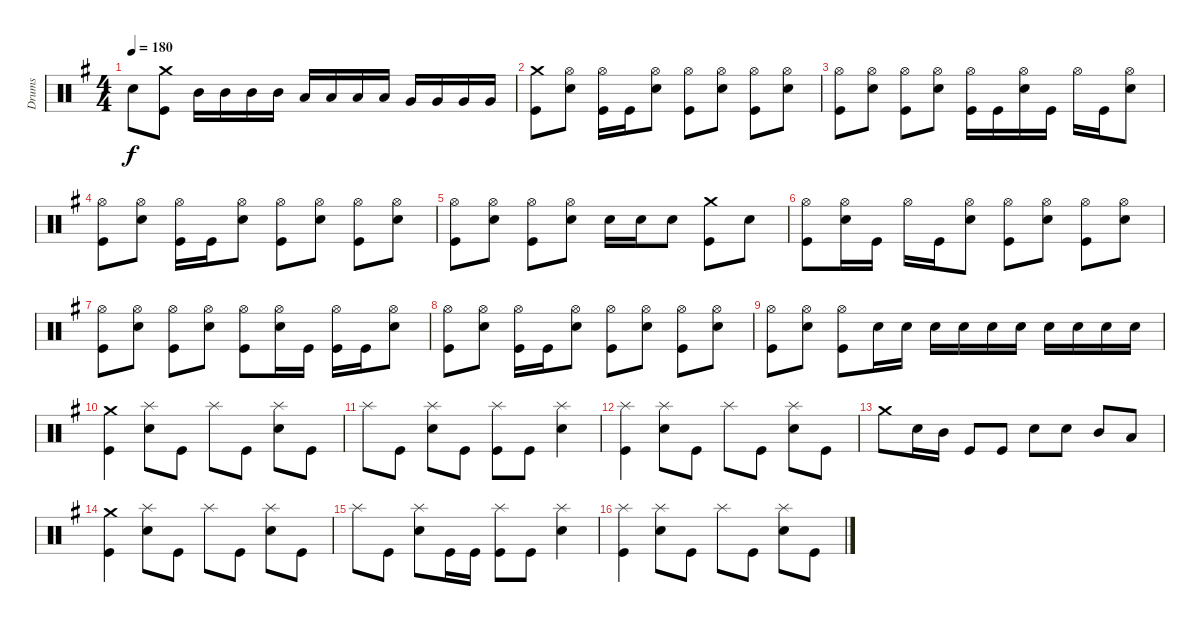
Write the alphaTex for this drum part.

\track ("Drums" "Drums") {instrument percussion}
\staff {score}
\articulation defaults
\ts (4 4)
\tempo 180
\clef neutral
\ks g "Electric Snare (hit)".8{dy f}
("Kick (hit)" "Crash medium (hit)").8 "Mid Tom (hit)".16 "Mid Tom (hit)".16 "Mid Tom (hit)".16 "Mid Tom (hit)".16 "Low Tom (hit)".16 "Low Tom (hit)".16 "Low Tom (hit)".16 "Low Tom (hit)".16 "Very Low Tom (hit)".16 "Very Low Tom (hit)".16 "Very Low Tom (hit)".16 "Very Low Tom (hit)".16 |
("Kick (hit)" "Crash medium (hit)").8 ("Electric Snare (hit)" "Hi-Hat (open)").8 ("Kick (hit)" "Hi-Hat (open)").16 "Kick (hit)".16 ("Electric Snare (hit)" "Hi-Hat (open)").8 ("Kick (hit)" "Hi-Hat (open)").8 ("Electric Snare (hit)" "Hi-Hat (open)").8 ("Kick (hit)" "Hi-Hat (open)").8 ("Electric Snare (hit)" "Hi-Hat (open)").8 |
("Kick (hit)" "Hi-Hat (open)").8 ("Electric Snare (hit)" "Hi-Hat (open)").8 ("Kick (hit)" "Hi-Hat (open)").8 ("Electric Snare (hit)" "Hi-Hat (open)").8 ("Kick (hit)" "Hi-Hat (open)").16 "Kick (hit)".16 ("Electric Snare (hit)" "Hi-Hat (open)").16 "Kick (hit)".16 "Hi-Hat (open)".16 "Kick (hit)".16 ("Electric Snare (hit)" "Hi-Hat (open)").8 |
("Kick (hit)" "Hi-Hat (open)").8 ("Electric Snare (hit)" "Hi-Hat (open)").8 ("Kick (hit)" "Hi-Hat (open)").16 "Kick (hit)".16 ("Electric Snare (hit)" "Hi-Hat (open)").8 ("Kick (hit)" "Hi-Hat (open)").8 ("Electric Snare (hit)" "Hi-Hat (open)").8 ("Kick (hit)" "Hi-Hat (open)").8 ("Electric Snare (hit)" "Hi-Hat (open)").8 |
("Kick (hit)" "Hi-Hat (open)").8 ("Electric Snare (hit)" "Hi-Hat (open)").8 ("Kick (hit)" "Hi-Hat (open)").8 ("Electric Snare (hit)" "Hi-Hat (open)").8 "Electric Snare (hit)".16 "Electric Snare (hit)".16 "Electric Snare (hit)".8 ("Kick (hit)" "Crash medium (hit)").8 "Electric Snare (hit)".8 |
("Kick (hit)" "Hi-Hat (open)").8 ("Electric Snare (hit)" "Hi-Hat (open)").16 "Kick (hit)".16 "Hi-Hat (open)".16 "Kick (hit)".16 ("Electric Snare (hit)" "Hi-Hat (open)").8 ("Kick (hit)" "Hi-Hat (open)").8 ("Electric Snare (hit)" "Hi-Hat (open)").8 ("Kick (hit)" "Hi-Hat (open)").8 ("Electric Snare (hit)" "Hi-Hat (open)").8 |
("Kick (hit)" "Hi-Hat (open)").8 ("Electric Snare (hit)" "Hi-Hat (open)").8 ("Kick (hit)" "Hi-Hat (open)").8 ("Electric Snare (hit)" "Hi-Hat (open)").8 ("Kick (hit)" "Hi-Hat (open)").8 ("Electric Snare (hit)" "Hi-Hat (open)").16 "Kick (hit)".16 ("Kick (hit)" "Hi-Hat (open)").16 "Kick (hit)".16 ("Electric Snare (hit)" "Hi-Hat (open)").8 |
("Kick (hit)" "Hi-Hat (open)").8 ("Electric Snare (hit)" "Hi-Hat (open)").8 ("Kick (hit)" "Hi-Hat (open)").16 "Kick (hit)".16 ("Electric Snare (hit)" "Hi-Hat (open)").8 ("Kick (hit)" "Hi-Hat (open)").8 ("Electric Snare (hit)" "Hi-Hat (open)").8 ("Kick (hit)" "Hi-Hat (open)").8 ("Electric Snare (hit)" "Hi-Hat (open)").8 |
("Kick (hit)" "Hi-Hat (open)").8 ("Electric Snare (hit)" "Hi-Hat (open)").8 ("Kick (hit)" "Hi-Hat (open)").8 "Electric Snare (hit)".16 "Electric Snare (hit)".16 "Electric Snare (hit)".16 "Electric Snare (hit)".16 "Electric Snare (hit)".16 "Electric Snare (hit)".16 "Electric Snare (hit)".16 "Electric Snare (hit)".16 "Electric Snare (hit)".16 "Electric Snare (hit)".16 |
("Kick (hit)" "Crash medium (hit)").4 ("Electric Snare (hit)" "Splash (hit)").8 "Kick (hit)".8 "Splash (hit)".8 "Kick (hit)".8 ("Electric Snare (hit)" "Splash (hit)").8 "Kick (hit)".8 |
"Splash (hit)".8 "Kick (hit)".8 ("Electric Snare (hit)" "Splash (hit)").8 "Kick (hit)".8 ("Kick (hit)" "Splash (hit)").8 "Kick (hit)".8 ("Electric Snare (hit)" "Splash (hit)").4 |
("Kick (hit)" "Splash (hit)").4 ("Electric Snare (hit)" "Splash (hit)").8 "Kick (hit)".8 "Splash (hit)".8 "Kick (hit)".8 ("Electric Snare (hit)" "Splash (hit)").8 "Kick (hit)".8 |
"Crash medium (hit)".8 "Electric Snare (hit)".16 "Mid Tom (hit)".16 "Kick (hit)".8 "Kick (hit)".8 "Electric Snare (hit)".8 "Electric Snare (hit)".8 "Mid Tom (hit)".8 "Low Tom (hit)".8 |
("Kick (hit)" "Crash medium (hit)").4 ("Electric Snare (hit)" "Splash (hit)").8 "Kick (hit)".8 "Splash (hit)".8 "Kick (hit)".8 ("Electric Snare (hit)" "Splash (hit)").8 "Kick (hit)".8 |
"Splash (hit)".8 "Kick (hit)".8 ("Electric Snare (hit)" "Splash (hit)").8 "Kick (hit)".16 "Kick (hit)".16 ("Kick (hit)" "Splash (hit)").8 "Kick (hit)".8 ("Electric Snare (hit)" "Splash (hit)").4 |
("Kick (hit)" "Splash (hit)").4 ("Electric Snare (hit)" "Splash (hit)").8 "Kick (hit)".8 "Splash (hit)".8 "Kick (hit)".8 ("Electric Snare (hit)" "Splash (hit)").8 "Kick (hit)".8
